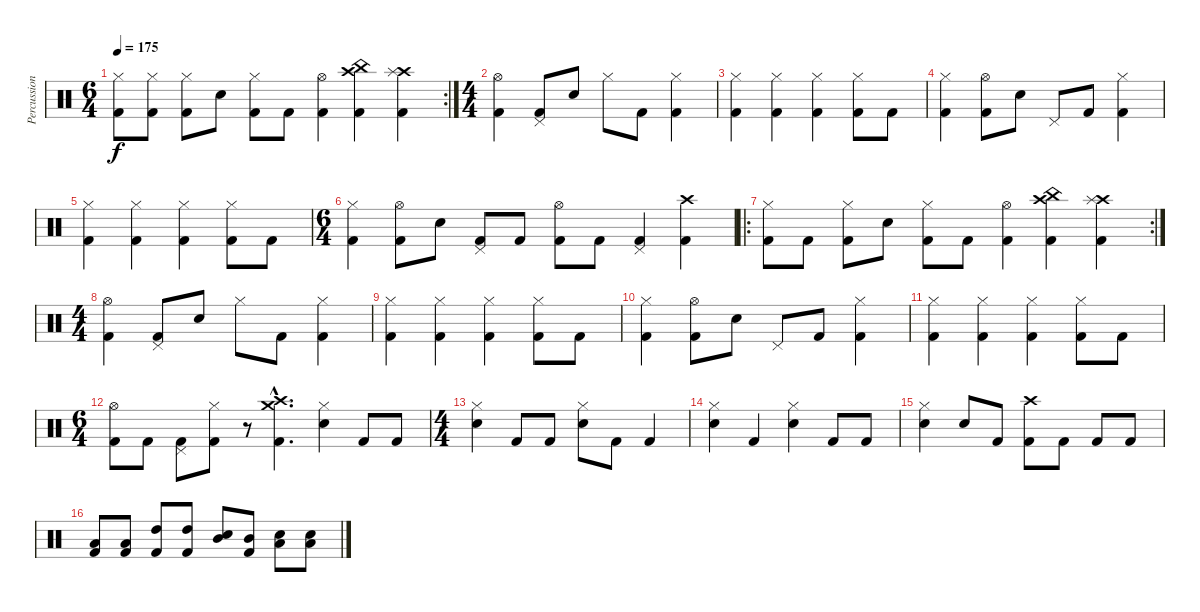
\track ("Percussion" "Percussion") {instrument percussion}
\staff {score}
\articulation defaults
\rc 2
\ts (6 4)
\tempo 175
\clef neutral
\ks c
("Hi-Hat (closed)" "Kick (hit) 2").8{dy f} ("Hi-Hat (closed)" "Kick (hit) 2").8 ("Hi-Hat (closed)" "Kick (hit) 2").8 "Snare (hit) 2".8 ("Hi-Hat (closed)" "Kick (hit) 2").8 "Kick (hit) 2".8 ("Hi-Hat (open)" "Kick (hit) 2").4 ("Crash high (hit)" "China (hit)" "Kick (hit) 2").4 ("Crash high (hit)" "Splash (hit)" "Kick (hit) 2").4 |
\ts (4 4)
("Hi-Hat (open)" "Kick (hit) 2").4 ("Pedal Hi-Hat (hit)" "Kick (hit) 2").8 "Snare (hit) 2".8 "Hi-Hat (closed)".8 "Kick (hit) 2".8 ("Hi-Hat (closed)" "Kick (hit) 2").4 |
("Hi-Hat (closed)" "Kick (hit) 2").4 ("Hi-Hat (closed)" "Kick (hit) 2").4 ("Hi-Hat (closed)" "Kick (hit) 2").4 ("Hi-Hat (closed)" "Kick (hit) 2").8 "Kick (hit) 2".8 |
("Hi-Hat (closed)" "Kick (hit) 2").4 ("Hi-Hat (open)" "Kick (hit) 2").8 "Snare (hit) 2".8 "Pedal Hi-Hat (hit)".8 "Kick (hit) 2".8 ("Hi-Hat (closed)" "Kick (hit) 2").4 |
("Hi-Hat (closed)" "Kick (hit) 2").4 ("Hi-Hat (closed)" "Kick (hit) 2").4 ("Hi-Hat (closed)" "Kick (hit) 2").4 ("Hi-Hat (closed)" "Kick (hit) 2").8 "Kick (hit) 2".8 |
\ts (6 4)
("Hi-Hat (closed)" "Kick (hit) 2").4 ("Hi-Hat (open)" "Kick (hit) 2").8 "Snare (hit) 2".8 ("Pedal Hi-Hat (hit)" "Kick (hit) 2").8 "Kick (hit) 2".8 ("Hi-Hat (open)" "Kick (hit) 2").8 "Kick (hit) 2".8 ("Pedal Hi-Hat (hit)" "Kick (hit) 2").4 ("Crash high (hit)" "Kick (hit) 2").4 |
\ro
\rc 2
("Hi-Hat (closed)" "Kick (hit) 2").8 "Kick (hit) 2".8 ("Hi-Hat (closed)" "Kick (hit) 2").8 "Snare (hit) 2".8 ("Hi-Hat (closed)" "Kick (hit) 2").8 "Kick (hit) 2".8 ("Hi-Hat (open)" "Kick (hit) 2").4 ("Crash high (hit)" "China (hit)" "Kick (hit) 2").4 ("Crash high (hit)" "Splash (hit)" "Kick (hit) 2").4 |
\ts (4 4)
("Hi-Hat (open)" "Kick (hit) 2").4 ("Pedal Hi-Hat (hit)" "Kick (hit) 2").8 "Snare (hit) 2".8 "Hi-Hat (closed)".8 "Kick (hit) 2".8 ("Hi-Hat (closed)" "Kick (hit) 2").4 |
("Hi-Hat (closed)" "Kick (hit) 2").4 ("Hi-Hat (closed)" "Kick (hit) 2").4 ("Hi-Hat (closed)" "Kick (hit) 2").4 ("Hi-Hat (closed)" "Kick (hit) 2").8 "Kick (hit) 2".8 |
("Hi-Hat (closed)" "Kick (hit) 2").4 ("Hi-Hat (open)" "Kick (hit) 2").8 "Snare (hit) 2".8 "Pedal Hi-Hat (hit)".8 "Kick (hit) 2".8 ("Hi-Hat (closed)" "Kick (hit) 2").4 |
("Hi-Hat (closed)" "Kick (hit) 2").4 ("Hi-Hat (closed)" "Kick (hit) 2").4 ("Hi-Hat (closed)" "Kick (hit) 2").4 ("Hi-Hat (closed)" "Kick (hit) 2").8 "Kick (hit) 2".8 |
\ts (6 4)
("Hi-Hat (open)" "Kick (hit) 2").8 "Kick (hit) 2".8 ("Pedal Hi-Hat (hit)" "Kick (hit) 2").8 ("Hi-Hat (closed)" "Kick (hit) 2").8 r.8 ("Crash high (hit)"{hac} "Crash medium (hit)"{hac} "Kick (hit) 2"{hac}).4{d} ("Hi-Hat (closed)" "Snare (hit) 2").4 "Kick (hit) 2".8 "Kick (hit) 2".8 |
\ts (4 4)
("Hi-Hat (closed)" "Snare (hit) 2").4 "Kick (hit) 2".8 "Kick (hit) 2".8 ("Hi-Hat (closed)" "Snare (hit) 2").8 "Kick (hit) 2".8 "Kick (hit) 2".4 |
("Hi-Hat (closed)" "Snare (hit) 2").4 "Kick (hit) 2".4 ("Hi-Hat (closed)" "Snare (hit) 2").4 "Kick (hit) 2".8 "Kick (hit) 2".8 |
("Hi-Hat (closed)" "Snare (hit) 2").4 "Snare (hit) 2".8 "Kick (hit) 2".8 ("Crash high (hit)" "Kick (hit) 2").8 "Kick (hit) 2".8 "Kick (hit) 2".8 "Kick (hit) 2".8 |
("Low Tom (hit)" "Kick (hit) 2").8 ("Low Tom (hit)" "Kick (hit) 2").8 ("High Tom (hit)" "Kick (hit) 2").8 ("High Tom (hit)" "Kick (hit) 2").8 ("Mid Tom (hit)" "Snare (hit) 2").8 ("Mid Tom (hit)" "Kick (hit) 2").8 ("Low Tom (hit)" "Snare (hit) 2").8 ("Low Tom (hit)" "Snare (hit) 2").8
